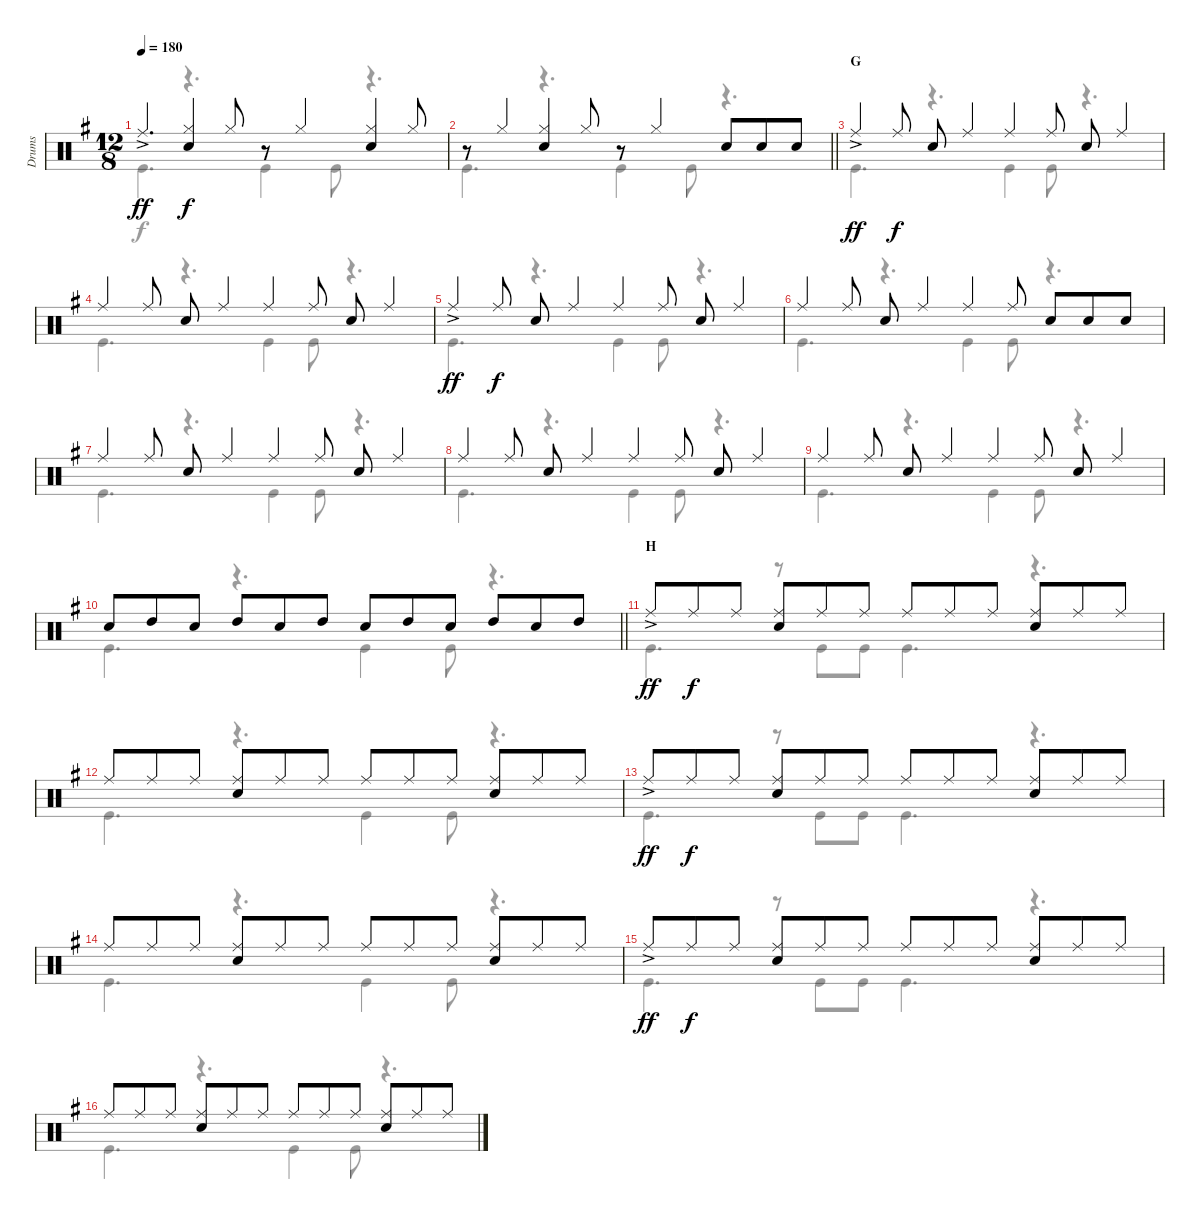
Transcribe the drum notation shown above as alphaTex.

\track ("Drums" "Drums") {instrument percussion}
\staff {score}
\articulation defaults
\voice
\ts (12 8)
\tempo 180
\clef neutral
\ks g "Ride (middle)"{ac}.4{d dy ff}
("Hi-Hat (closed)" "Snare (hit) 2").4{dy f} "Hi-Hat (closed)".8 r.8 "Hi-Hat (closed)".4 ("Hi-Hat (closed)" "Snare (hit) 2").4 "Hi-Hat (closed)".8 |
\barLineRight lightlight
r.8 "Hi-Hat (closed)".4 ("Hi-Hat (closed)" "Snare (hit) 2").4 "Hi-Hat (closed)".8 r.8 "Hi-Hat (closed)".4 "Snare (hit) 2".8 "Snare (hit) 2".8 "Snare (hit) 2".8 |
\section ("" "G")
"Ride (middle)"{ac}.4{dy ff} "Ride (middle)".8{dy f} "Snare (hit) 2".8 "Ride (middle)".4 "Ride (middle)".4 "Ride (middle)".8 "Snare (hit) 2".8 "Ride (middle)".4 |
"Ride (middle)".4 "Ride (middle)".8 "Snare (hit) 2".8 "Ride (middle)".4 "Ride (middle)".4 "Ride (middle)".8 "Snare (hit) 2".8 "Ride (middle)".4 |
"Ride (middle)"{ac}.4{dy ff} "Ride (middle)".8{dy f} "Snare (hit) 2".8 "Ride (middle)".4 "Ride (middle)".4 "Ride (middle)".8 "Snare (hit) 2".8 "Ride (middle)".4 |
"Ride (middle)".4 "Ride (middle)".8 "Snare (hit) 2".8 "Ride (middle)".4 "Ride (middle)".4 "Ride (middle)".8 "Snare (hit) 2".8 "Snare (hit) 2".8 "Snare (hit) 2".8 |
"Ride (middle)".4 "Ride (middle)".8 "Snare (hit) 2".8 "Ride (middle)".4 "Ride (middle)".4 "Ride (middle)".8 "Snare (hit) 2".8 "Ride (middle)".4 |
"Ride (middle)".4 "Ride (middle)".8 "Snare (hit) 2".8 "Ride (middle)".4 "Ride (middle)".4 "Ride (middle)".8 "Snare (hit) 2".8 "Ride (middle)".4 |
"Ride (middle)".4 "Ride (middle)".8 "Snare (hit) 2".8 "Ride (middle)".4 "Ride (middle)".4 "Ride (middle)".8 "Snare (hit) 2".8 "Ride (middle)".4 |
\barLineRight lightlight "Snare (hit) 2".8 "High Tom (hit)".8 "Snare (hit) 2".8 "High Tom (hit)".8 "Snare (hit) 2".8 "High Tom (hit)".8 "Snare (hit) 2".8 "High Tom (hit)".8 "Snare (hit) 2".8 "High Tom (hit)".8 "Snare (hit) 2".8 "High Tom (hit)".8
|
\section ("" "H")
"Ride (middle)"{ac}.8{dy ff} "Ride (middle)".8{dy f} "Ride (middle)".8 ("Ride (middle)" "Snare (hit) 2").8 "Ride (middle)".8 "Ride (middle)".8 "Ride (middle)".8 "Ride (middle)".8 "Ride (middle)".8 ("Ride (middle)" "Snare (hit) 2").8 "Ride (middle)".8 "Ride (middle)".8 |
"Ride (middle)".8 "Ride (middle)".8 "Ride (middle)".8 ("Ride (middle)" "Snare (hit) 2").8 "Ride (middle)".8 "Ride (middle)".8 "Ride (middle)".8 "Ride (middle)".8 "Ride (middle)".8 ("Ride (middle)" "Snare (hit) 2").8 "Ride (middle)".8 "Ride (middle)".8 |
"Ride (middle)"{ac}.8{dy ff} "Ride (middle)".8{dy f} "Ride (middle)".8 ("Ride (middle)" "Snare (hit) 2").8 "Ride (middle)".8 "Ride (middle)".8 "Ride (middle)".8 "Ride (middle)".8 "Ride (middle)".8 ("Ride (middle)" "Snare (hit) 2").8 "Ride (middle)".8 "Ride (middle)".8 |
"Ride (middle)".8 "Ride (middle)".8 "Ride (middle)".8 ("Ride (middle)" "Snare (hit) 2").8 "Ride (middle)".8 "Ride (middle)".8 "Ride (middle)".8 "Ride (middle)".8 "Ride (middle)".8 ("Ride (middle)" "Snare (hit) 2").8 "Ride (middle)".8 "Ride (middle)".8 |
"Ride (middle)"{ac}.8{dy ff} "Ride (middle)".8{dy f} "Ride (middle)".8 ("Ride (middle)" "Snare (hit) 2").8 "Ride (middle)".8 "Ride (middle)".8 "Ride (middle)".8 "Ride (middle)".8 "Ride (middle)".8 ("Ride (middle)" "Snare (hit) 2").8 "Ride (middle)".8 "Ride (middle)".8 |
"Ride (middle)".8 "Ride (middle)".8 "Ride (middle)".8 ("Ride (middle)" "Snare (hit) 2").8 "Ride (middle)".8 "Ride (middle)".8 "Ride (middle)".8 "Ride (middle)".8 "Ride (middle)".8 ("Ride (middle)" "Snare (hit) 2").8 "Ride (middle)".8 "Ride (middle)".8
\voice
\clef neutral
\ottava regular
\simile none
\ks g "Kick (hit)".4{d dy f}
r.4{d} "Kick (hit)".4 "Kick (hit)".8 r.4{d} |
\barLineRight lightlight "Kick (hit)".4{d}
r.4{d} "Kick (hit)".4 "Kick (hit)".8 r.4{d} |
"Kick (hit)".4{d} r.4{d} "Kick (hit)".4 "Kick (hit)".8 r.4{d} |
"Kick (hit)".4{d} r.4{d} "Kick (hit)".4 "Kick (hit)".8 r.4{d} |
"Kick (hit)".4{d} r.4{d} "Kick (hit)".4 "Kick (hit)".8 r.4{d} |
"Kick (hit)".4{d} r.4{d} "Kick (hit)".4 "Kick (hit)".8 r.4{d} |
"Kick (hit)".4{d} r.4{d} "Kick (hit)".4 "Kick (hit)".8 r.4{d} |
"Kick (hit)".4{d} r.4{d} "Kick (hit)".4 "Kick (hit)".8 r.4{d} |
"Kick (hit)".4{d} r.4{d} "Kick (hit)".4 "Kick (hit)".8 r.4{d} |
\barLineRight lightlight "Kick (hit)".4{d}
r.4{d} "Kick (hit)".4 "Kick (hit)".8 r.4{d} |
"Kick (hit)".4{d} r.8 "Kick (hit)".8 "Kick (hit)".8 "Kick (hit)".4{d} r.4{d} |
"Kick (hit)".4{d} r.4{d} "Kick (hit)".4 "Kick (hit)".8 r.4{d} |
"Kick (hit)".4{d} r.8 "Kick (hit)".8 "Kick (hit)".8 "Kick (hit)".4{d} r.4{d} |
"Kick (hit)".4{d} r.4{d} "Kick (hit)".4 "Kick (hit)".8 r.4{d} |
"Kick (hit)".4{d} r.8 "Kick (hit)".8 "Kick (hit)".8 "Kick (hit)".4{d} r.4{d} |
"Kick (hit)".4{d} r.4{d} "Kick (hit)".4 "Kick (hit)".8 r.4{d}
